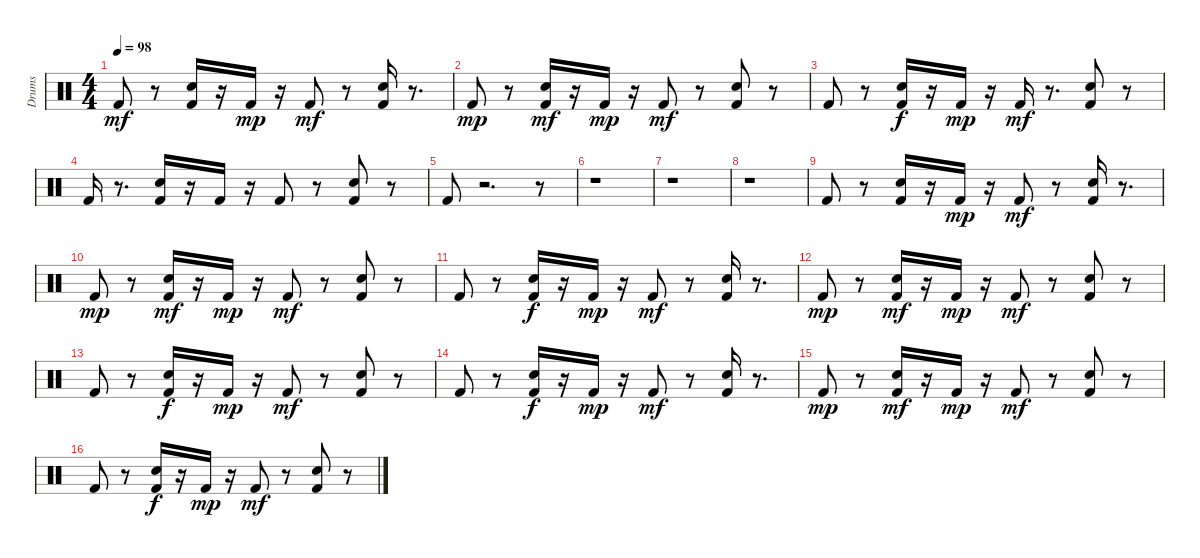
\track ("Drums" "Drums") {instrument percussion}
\staff {score}
\articulation defaults
\ts (4 4)
\tempo 98
\clef neutral
\ks c "Kick (hit) 2".8{dy mf}
r.8 ("Kick (hit) 2" "Snare (hit) 2").16 r.16 "Kick (hit) 2".16{dy mp} r.16 "Kick (hit) 2".8{dy mf} r.8 ("Kick (hit) 2" "Snare (hit) 2").16 r.8{d} |
"Kick (hit) 2".8{dy mp} r.8 ("Kick (hit) 2" "Snare (hit) 2").16{dy mf} r.16 "Kick (hit) 2".16{dy mp} r.16 "Kick (hit) 2".8{dy mf} r.8 ("Kick (hit) 2" "Snare (hit) 2").8 r.8 |
"Kick (hit) 2".8 r.8 ("Kick (hit) 2" "Snare (hit) 2").16{dy f} r.16 "Kick (hit) 2".16{dy mp} r.16 "Kick (hit) 2".16{dy mf} r.8{d} ("Kick (hit) 2" "Snare (hit) 2").8 r.8 |
"Kick (hit) 2".16 r.8{d} ("Kick (hit) 2" "Snare (hit) 2").16 r.16 "Kick (hit) 2".16 r.16 "Kick (hit) 2".8 r.8 ("Kick (hit) 2" "Snare (hit) 2").8 r.8 |
"Kick (hit) 2".8 r.2{d} r.8 |
r.1 |
r.1 |
r.1 |
"Kick (hit) 2".8 r.8 ("Kick (hit) 2" "Snare (hit) 2").16 r.16 "Kick (hit) 2".16{dy mp} r.16 "Kick (hit) 2".8{dy mf} r.8 ("Kick (hit) 2" "Snare (hit) 2").16 r.8{d} |
"Kick (hit) 2".8{dy mp} r.8 ("Kick (hit) 2" "Snare (hit) 2").16{dy mf} r.16 "Kick (hit) 2".16{dy mp} r.16 "Kick (hit) 2".8{dy mf} r.8 ("Kick (hit) 2" "Snare (hit) 2").8 r.8 |
"Kick (hit) 2".8 r.8 ("Kick (hit) 2" "Snare (hit) 2").16{dy f} r.16 "Kick (hit) 2".16{dy mp} r.16 "Kick (hit) 2".8{dy mf} r.8 ("Kick (hit) 2" "Snare (hit) 2").16 r.8{d} |
"Kick (hit) 2".8{dy mp} r.8 ("Kick (hit) 2" "Snare (hit) 2").16{dy mf} r.16 "Kick (hit) 2".16{dy mp} r.16 "Kick (hit) 2".8{dy mf} r.8 ("Kick (hit) 2" "Snare (hit) 2").8 r.8 |
"Kick (hit) 2".8 r.8 ("Kick (hit) 2" "Snare (hit) 2").16{dy f} r.16 "Kick (hit) 2".16{dy mp} r.16 "Kick (hit) 2".8{dy mf} r.8 ("Kick (hit) 2" "Snare (hit) 2").8 r.8 |
"Kick (hit) 2".8 r.8 ("Kick (hit) 2" "Snare (hit) 2").16{dy f} r.16 "Kick (hit) 2".16{dy mp} r.16 "Kick (hit) 2".8{dy mf} r.8 ("Kick (hit) 2" "Snare (hit) 2").16 r.8{d} |
"Kick (hit) 2".8{dy mp} r.8 ("Kick (hit) 2" "Snare (hit) 2").16{dy mf} r.16 "Kick (hit) 2".16{dy mp} r.16 "Kick (hit) 2".8{dy mf} r.8 ("Kick (hit) 2" "Snare (hit) 2").8 r.8 |
"Kick (hit) 2".8 r.8 ("Kick (hit) 2" "Snare (hit) 2").16{dy f} r.16 "Kick (hit) 2".16{dy mp} r.16 "Kick (hit) 2".8{dy mf} r.8 ("Kick (hit) 2" "Snare (hit) 2").8 r.8
